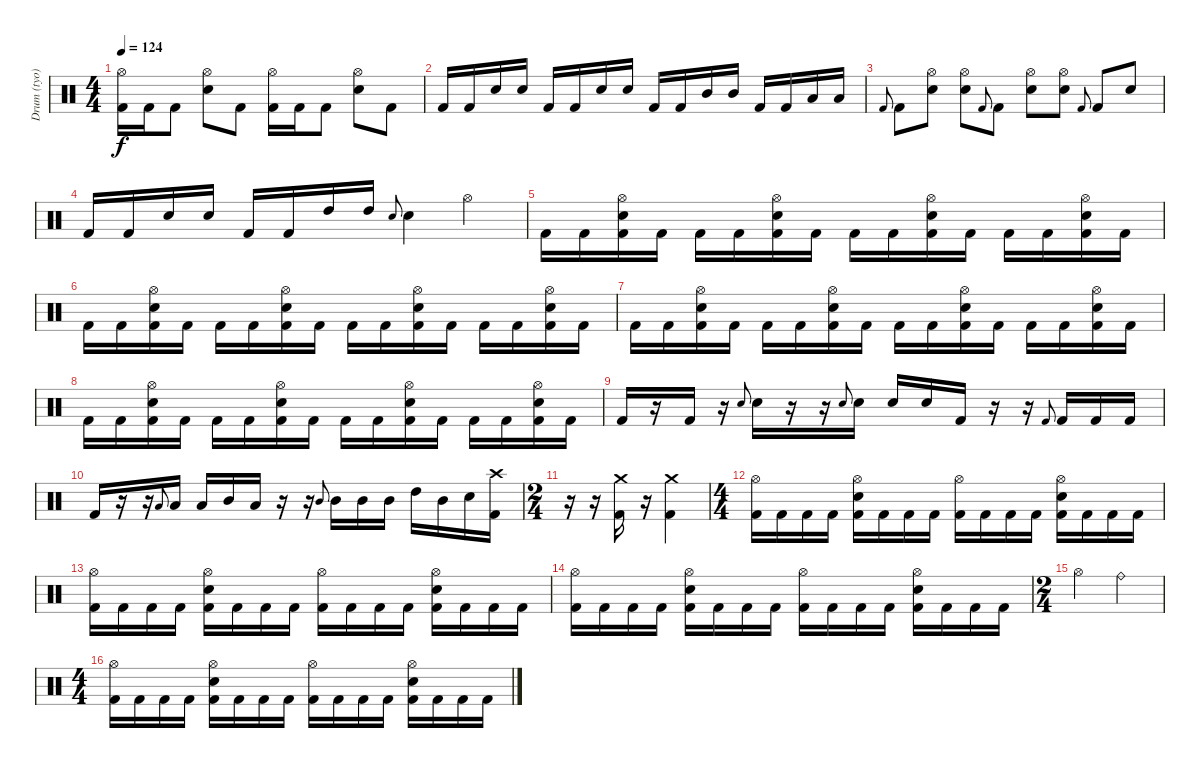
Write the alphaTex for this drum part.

\track ("Drum (tyo)" "Drum (tyo)") {instrument percussion}
\staff {score}
\articulation defaults
\ts (4 4)
\tempo 124
\clef neutral
\ks c
("Hi-Hat (open)" "Kick (hit) 2").16{dy f} "Kick (hit) 2".16 "Kick (hit) 2".8 ("Snare (hit) 2" "Hi-Hat (open)").8 "Kick (hit) 2".8 ("Kick (hit) 2" "Hi-Hat (open)").16 "Kick (hit) 2".16 "Kick (hit) 2".8 ("Snare (hit) 2" "Hi-Hat (open)").8 "Kick (hit) 2".8 |
"Kick (hit) 2".16 "Kick (hit) 2".16 "Electric Snare (hit)".16 "Electric Snare (hit)".16 "Kick (hit) 2".16 "Kick (hit) 2".16 "Electric Snare (hit)".16 "Electric Snare (hit)".16 "Kick (hit) 2".16 "Kick (hit) 2".16 "Mid Tom (hit)".16 "Mid Tom (hit)".16 "Kick (hit) 2".16 "Kick (hit) 2".16 "Low Tom (hit)".16 "Low Tom (hit)".16 |
"Kick (hit) 2".8{gr onbeat} "Kick (hit) 2".8 ("Hi-Hat (open)" "Snare (hit) 2").8 ("Hi-Hat (open)" "Snare (hit) 2").8 "Kick (hit) 2".8{gr onbeat} "Kick (hit) 2".8 ("Snare (hit) 2" "Hi-Hat (open)").8 ("Snare (hit) 2" "Hi-Hat (open)").8 "Kick (hit) 2".8{gr onbeat} "Kick (hit) 2".8 "Snare (hit) 2".8 |
"Kick (hit) 2".16 "Kick (hit) 2".16 "Electric Snare (hit)".16 "Electric Snare (hit)".16 "Kick (hit) 2".16 "Kick (hit) 2".16 "High Tom (hit)".16 "High Tom (hit)".16 "Electric Snare (hit)".8{gr onbeat} "Electric Snare (hit)".4 "Hi-Hat (open)".4 |
"Kick (hit) 2".16 "Kick (hit) 2".16 ("Electric Snare (hit)" "Kick (hit) 2" "Hi-Hat (open)").16 "Kick (hit) 2".16 "Kick (hit) 2".16 "Kick (hit) 2".16 ("Kick (hit) 2" "Electric Snare (hit)" "Hi-Hat (open)").16 "Kick (hit) 2".16 "Kick (hit) 2".16 "Kick (hit) 2".16 ("Kick (hit) 2" "Electric Snare (hit)" "Hi-Hat (open)").16 "Kick (hit) 2".16 "Kick (hit) 2".16 "Kick (hit) 2".16 ("Kick (hit) 2" "Electric Snare (hit)" "Hi-Hat (open)").16 "Kick (hit) 2".16 |
"Kick (hit) 2".16 "Kick (hit) 2".16 ("Electric Snare (hit)" "Kick (hit) 2" "Hi-Hat (open)").16 "Kick (hit) 2".16 "Kick (hit) 2".16 "Kick (hit) 2".16 ("Kick (hit) 2" "Electric Snare (hit)" "Hi-Hat (open)").16 "Kick (hit) 2".16 "Kick (hit) 2".16 "Kick (hit) 2".16 ("Kick (hit) 2" "Electric Snare (hit)" "Hi-Hat (open)").16 "Kick (hit) 2".16 "Kick (hit) 2".16 "Kick (hit) 2".16 ("Kick (hit) 2" "Electric Snare (hit)" "Hi-Hat (open)").16 "Kick (hit) 2".16 |
"Kick (hit) 2".16 "Kick (hit) 2".16 ("Electric Snare (hit)" "Kick (hit) 2" "Hi-Hat (open)").16 "Kick (hit) 2".16 "Kick (hit) 2".16 "Kick (hit) 2".16 ("Kick (hit) 2" "Electric Snare (hit)" "Hi-Hat (open)").16 "Kick (hit) 2".16 "Kick (hit) 2".16 "Kick (hit) 2".16 ("Kick (hit) 2" "Electric Snare (hit)" "Hi-Hat (open)").16 "Kick (hit) 2".16 "Kick (hit) 2".16 "Kick (hit) 2".16 ("Kick (hit) 2" "Electric Snare (hit)" "Hi-Hat (open)").16 "Kick (hit) 2".16 |
"Kick (hit) 2".16 "Kick (hit) 2".16 ("Electric Snare (hit)" "Kick (hit) 2" "Hi-Hat (open)").16 "Kick (hit) 2".16 "Kick (hit) 2".16 "Kick (hit) 2".16 ("Kick (hit) 2" "Electric Snare (hit)" "Hi-Hat (open)").16 "Kick (hit) 2".16 "Kick (hit) 2".16 "Kick (hit) 2".16 ("Kick (hit) 2" "Electric Snare (hit)" "Hi-Hat (open)").16 "Kick (hit) 2".16 "Kick (hit) 2".16 "Kick (hit) 2".16 ("Kick (hit) 2" "Electric Snare (hit)" "Hi-Hat (open)").16 "Kick (hit) 2".16 |
"Kick (hit) 2".16 r.16 "Kick (hit) 2".16 r.16 "Electric Snare (hit)".8{gr onbeat} "Electric Snare (hit)".16 r.16 r.16 "Electric Snare (hit)".8{gr onbeat} "Electric Snare (hit)".16 "Electric Snare (hit)".16 "Electric Snare (hit)".16 "Kick (hit) 2".16 r.16 r.16 "Kick (hit) 2".8{gr onbeat} "Kick (hit) 2".16 "Kick (hit) 2".16 "Kick (hit) 2".16 |
"Kick (hit) 2".16 r.16 r.16 "Low Tom (hit)".8{gr onbeat} "Low Tom (hit)".16 "Low Tom (hit)".16 "Mid Tom (hit)".16 "Low Tom (hit)".16 r.16 r.16 "Mid Tom (hit)".8{gr onbeat} "Mid Tom (hit)".16 "Mid Tom (hit)".16 "Mid Tom (hit)".16 "High Tom (hit)".16 "Mid Tom (hit)".16 "Electric Snare (hit)".16 ("Kick (hit) 2" "Crash high (hit)").16 |
\ts (2 4)
r.16 r.16 ("Kick (hit) 2" "Crash medium (hit)").16 r.16 ("Kick (hit) 2" "Crash medium (hit)").4 |
\ts (4 4)
("Kick (hit) 2" "Hi-Hat (open)").16 "Kick (hit) 2".16 "Kick (hit) 2".16 "Kick (hit) 2".16 ("Kick (hit) 2" "Electric Snare (hit)" "Hi-Hat (open)").16 "Kick (hit) 2".16 "Kick (hit) 2".16 "Kick (hit) 2".16 ("Kick (hit) 2" "Hi-Hat (open)").16 "Kick (hit) 2".16 "Kick (hit) 2".16 "Kick (hit) 2".16 ("Kick (hit) 2" "Hi-Hat (open)" "Electric Snare (hit)").16 "Kick (hit) 2".16 "Kick (hit) 2".16 "Kick (hit) 2".16 |
("Kick (hit) 2" "Hi-Hat (open)").16 "Kick (hit) 2".16 "Kick (hit) 2".16 "Kick (hit) 2".16 ("Kick (hit) 2" "Electric Snare (hit)" "Hi-Hat (open)").16 "Kick (hit) 2".16 "Kick (hit) 2".16 "Kick (hit) 2".16 ("Kick (hit) 2" "Hi-Hat (open)").16 "Kick (hit) 2".16 "Kick (hit) 2".16 "Kick (hit) 2".16 ("Kick (hit) 2" "Hi-Hat (open)" "Electric Snare (hit)").16 "Kick (hit) 2".16 "Kick (hit) 2".16 "Kick (hit) 2".16 |
("Kick (hit) 2" "Hi-Hat (open)").16 "Kick (hit) 2".16 "Kick (hit) 2".16 "Kick (hit) 2".16 ("Kick (hit) 2" "Electric Snare (hit)" "Hi-Hat (open)").16 "Kick (hit) 2".16 "Kick (hit) 2".16 "Kick (hit) 2".16 ("Kick (hit) 2" "Hi-Hat (open)").16 "Kick (hit) 2".16 "Kick (hit) 2".16 "Kick (hit) 2".16 ("Kick (hit) 2" "Hi-Hat (open)" "Electric Snare (hit)").16 "Kick (hit) 2".16 "Kick (hit) 2".16 "Kick (hit) 2".16 |
\ts (2 4)
"Hi-Hat (open)".4 "Ride (bell)".4 |
\ts (4 4)
("Kick (hit) 2" "Hi-Hat (open)").16 "Kick (hit) 2".16 "Kick (hit) 2".16 "Kick (hit) 2".16 ("Kick (hit) 2" "Electric Snare (hit)" "Hi-Hat (open)").16 "Kick (hit) 2".16 "Kick (hit) 2".16 "Kick (hit) 2".16 ("Kick (hit) 2" "Hi-Hat (open)").16 "Kick (hit) 2".16 "Kick (hit) 2".16 "Kick (hit) 2".16 ("Kick (hit) 2" "Hi-Hat (open)" "Electric Snare (hit)").16 "Kick (hit) 2".16 "Kick (hit) 2".16 "Kick (hit) 2".16
